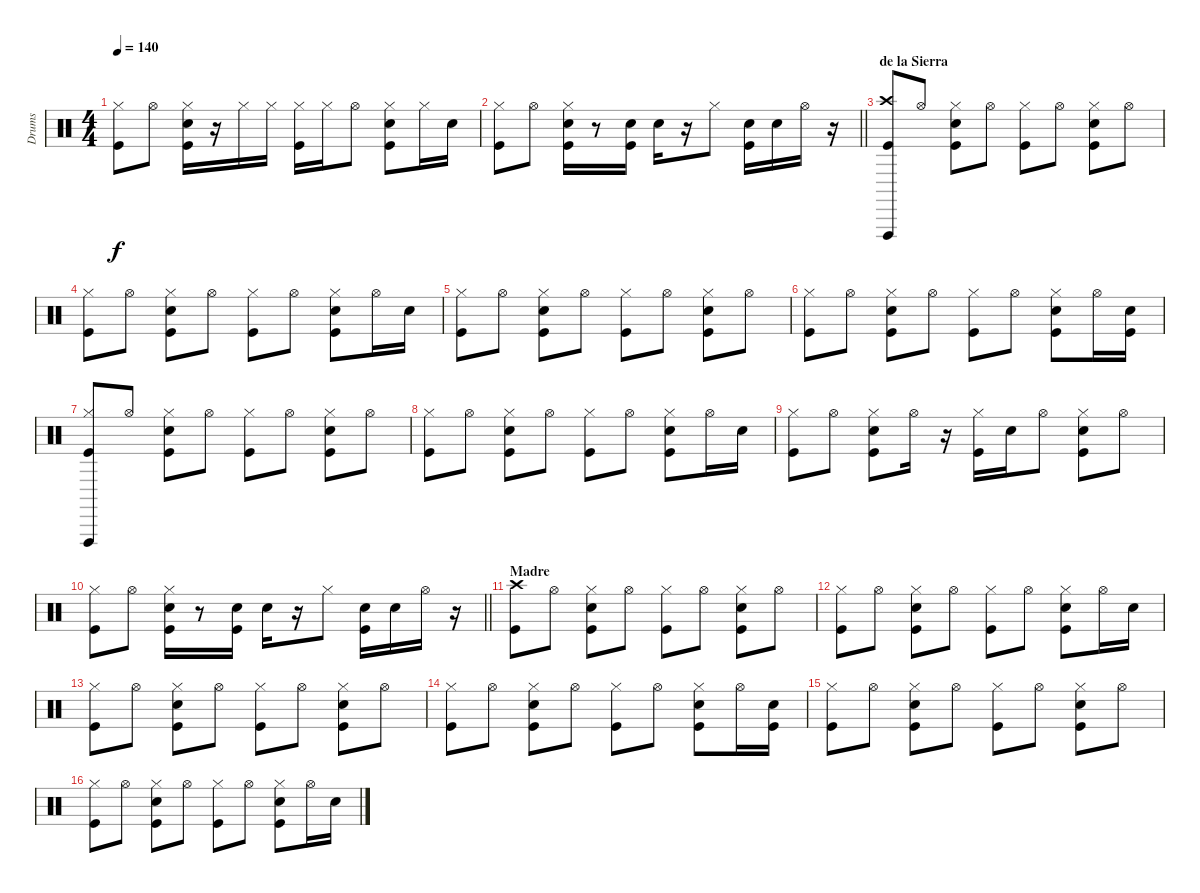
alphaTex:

\track ("Drums" "Drums") {instrument percussion}
\staff {score}
\articulation defaults
\ts (4 4)
\tempo 140
\clef neutral
\ks c
("Hi-Hat (closed)" "Kick (hit)").8{dy f} "Hi-Hat (open)".8 ("Hi-Hat (closed)" "Snare (hit) 2" "Kick (hit)").16 r.16 "Hi-Hat (closed)".16 "Hi-Hat (closed)".16 ("Hi-Hat (closed)" "Kick (hit)").16 "Hi-Hat (closed)".16 "Hi-Hat (open)".8 ("Hi-Hat (closed)" "Snare (hit) 2" "Kick (hit)").8 "Hi-Hat (closed)".16 "Snare (hit) 2".16 |
\barLineRight lightlight
("Hi-Hat (closed)" "Kick (hit)").8 "Hi-Hat (open)".8 ("Hi-Hat (closed)" "Snare (hit) 2" "Kick (hit)").16 r.8 ("Snare (hit) 2" "Kick (hit)").16 "Snare (hit) 2".16 r.16 "Hi-Hat (closed)".8 ("Snare (hit) 2" "Kick (hit)").16 "Snare (hit) 2".16 "Hi-Hat (open)".16 r.16 |
\section ("" "de la Sierra")
("Crash high (hit)" "Vibraslap (hit)" "Kick (hit)").8 "Hi-Hat (open)".8 ("Hi-Hat (closed)" "Snare (hit) 2" "Kick (hit)").8 "Hi-Hat (open)".8 ("Hi-Hat (closed)" "Kick (hit)").8 "Hi-Hat (open)".8 ("Hi-Hat (closed)" "Snare (hit) 2" "Kick (hit)").8 "Hi-Hat (open)".8 |
("Hi-Hat (closed)" "Kick (hit)").8 "Hi-Hat (open)".8 ("Hi-Hat (closed)" "Snare (hit) 2" "Kick (hit)").8 "Hi-Hat (open)".8 ("Hi-Hat (closed)" "Kick (hit)").8 "Hi-Hat (open)".8 ("Hi-Hat (closed)" "Snare (hit) 2" "Kick (hit)").8 "Hi-Hat (open)".16 "Snare (hit) 2".16 |
("Hi-Hat (closed)" "Kick (hit)").8 "Hi-Hat (open)".8 ("Hi-Hat (closed)" "Snare (hit) 2" "Kick (hit)").8 "Hi-Hat (open)".8 ("Hi-Hat (closed)" "Kick (hit)").8 "Hi-Hat (open)".8 ("Hi-Hat (closed)" "Snare (hit) 2" "Kick (hit)").8 "Hi-Hat (open)".8 |
("Hi-Hat (closed)" "Kick (hit)").8 "Hi-Hat (open)".8 ("Hi-Hat (closed)" "Snare (hit) 2" "Kick (hit)").8 "Hi-Hat (open)".8 ("Hi-Hat (closed)" "Kick (hit)").8 "Hi-Hat (open)".8 ("Hi-Hat (closed)" "Snare (hit) 2" "Kick (hit)").8 "Hi-Hat (open)".16 ("Snare (hit) 2" "Kick (hit)").16 |
("Hi-Hat (closed)" "Vibraslap (hit)" "Kick (hit)").8 "Hi-Hat (open)".8 ("Hi-Hat (closed)" "Snare (hit) 2" "Kick (hit)").8 "Hi-Hat (open)".8 ("Hi-Hat (closed)" "Kick (hit)").8 "Hi-Hat (open)".8 ("Hi-Hat (closed)" "Snare (hit) 2" "Kick (hit)").8 "Hi-Hat (open)".8 |
("Hi-Hat (closed)" "Kick (hit)").8 "Hi-Hat (open)".8 ("Hi-Hat (closed)" "Snare (hit) 2" "Kick (hit)").8 "Hi-Hat (open)".8 ("Hi-Hat (closed)" "Kick (hit)").8 "Hi-Hat (open)".8 ("Hi-Hat (closed)" "Snare (hit) 2" "Kick (hit)").8 "Hi-Hat (open)".16 "Snare (hit) 2".16 |
("Hi-Hat (closed)" "Kick (hit)").8 "Hi-Hat (open)".8 ("Hi-Hat (closed)" "Snare (hit) 2" "Kick (hit)").8 "Hi-Hat (open)".16 r.16 ("Hi-Hat (closed)" "Kick (hit)").16 "Snare (hit) 2".16 "Hi-Hat (open)".8 ("Hi-Hat (closed)" "Snare (hit) 2" "Kick (hit)").8 "Hi-Hat (open)".8 |
\barLineRight lightlight
("Hi-Hat (closed)" "Kick (hit)").8 "Hi-Hat (open)".8 ("Hi-Hat (closed)" "Snare (hit) 2" "Kick (hit)").16 r.8 ("Snare (hit) 2" "Kick (hit)").16 "Snare (hit) 2".16 r.16 "Hi-Hat (closed)".8 ("Snare (hit) 2" "Kick (hit)").16 "Snare (hit) 2".16 "Hi-Hat (open)".16 r.16 |
\section ("" "Madre")
("Crash high (hit)" "Kick (hit)").8 "Hi-Hat (open)".8 ("Hi-Hat (closed)" "Snare (hit) 2" "Kick (hit)").8 "Hi-Hat (open)".8 ("Hi-Hat (closed)" "Kick (hit)").8 "Hi-Hat (open)".8 ("Hi-Hat (closed)" "Snare (hit) 2" "Kick (hit)").8 "Hi-Hat (open)".8 |
("Hi-Hat (closed)" "Kick (hit)").8 "Hi-Hat (open)".8 ("Hi-Hat (closed)" "Snare (hit) 2" "Kick (hit)").8 "Hi-Hat (open)".8 ("Hi-Hat (closed)" "Kick (hit)").8 "Hi-Hat (open)".8 ("Hi-Hat (closed)" "Snare (hit) 2" "Kick (hit)").8 "Hi-Hat (open)".16 "Snare (hit) 2".16 |
("Hi-Hat (closed)" "Kick (hit)").8 "Hi-Hat (open)".8 ("Hi-Hat (closed)" "Snare (hit) 2" "Kick (hit)").8 "Hi-Hat (open)".8 ("Hi-Hat (closed)" "Kick (hit)").8 "Hi-Hat (open)".8 ("Hi-Hat (closed)" "Snare (hit) 2" "Kick (hit)").8 "Hi-Hat (open)".8 |
("Hi-Hat (closed)" "Kick (hit)").8 "Hi-Hat (open)".8 ("Hi-Hat (closed)" "Snare (hit) 2" "Kick (hit)").8 "Hi-Hat (open)".8 ("Hi-Hat (closed)" "Kick (hit)").8 "Hi-Hat (open)".8 ("Hi-Hat (closed)" "Snare (hit) 2" "Kick (hit)").8 "Hi-Hat (open)".16 ("Snare (hit) 2" "Kick (hit)").16 |
("Hi-Hat (closed)" "Kick (hit)").8 "Hi-Hat (open)".8 ("Hi-Hat (closed)" "Snare (hit) 2" "Kick (hit)").8 "Hi-Hat (open)".8 ("Hi-Hat (closed)" "Kick (hit)").8 "Hi-Hat (open)".8 ("Hi-Hat (closed)" "Snare (hit) 2" "Kick (hit)").8 "Hi-Hat (open)".8 |
("Hi-Hat (closed)" "Kick (hit)").8 "Hi-Hat (open)".8 ("Hi-Hat (closed)" "Snare (hit) 2" "Kick (hit)").8 "Hi-Hat (open)".8 ("Hi-Hat (closed)" "Kick (hit)").8 "Hi-Hat (open)".8 ("Hi-Hat (closed)" "Snare (hit) 2" "Kick (hit)").8 "Hi-Hat (open)".16 "Snare (hit) 2".16
